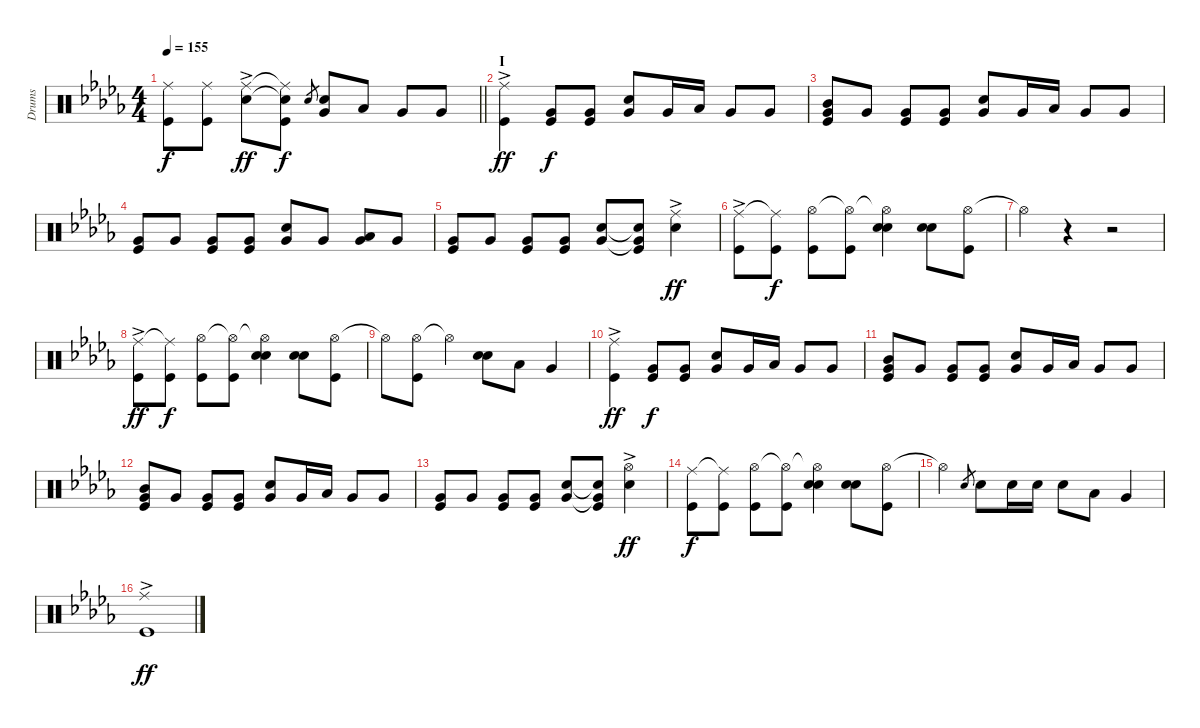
\track ("Drums" "Drums") {instrument percussion}
\staff {score}
\articulation defaults
\ts (4 4)
\tempo 155
\clef neutral
\barLineRight lightlight
\ks db
("Ride (middle)" "Kick (hit)").8{dy f} ("Ride (middle)" "Kick (hit)").8 ("Ride (middle)"{ac} "Snare (hit) 2"{ac}).8{dy ff} ("Ride (middle)"{t} "Snare (hit) 2"{t} "Kick (hit)").8{dy f} "Snare (hit) 2".8{gr} ("Snare (hit) 2" "Very Low Tom (hit)").8 "Low Tom (hit)".8 "Very Low Tom (hit)".8 "Very Low Tom (hit)".8 |
\section ("" "I")
("Ride (middle)"{ac} "Kick (hit)"{ac}).4{dy ff} ("Very Low Tom (hit)" "Kick (hit)").8{dy f} ("Very Low Tom (hit)" "Kick (hit)").8 ("Snare (hit) 2" "Very Low Tom (hit)").8 "Very Low Tom (hit)".16 "Low Tom (hit)".16 "Very Low Tom (hit)".8 "Very Low Tom (hit)".8 |
("Mid Tom (hit)" "Very Low Tom (hit)" "Kick (hit)").8 "Very Low Tom (hit)".8 ("Very Low Tom (hit)" "Kick (hit)").8 ("Very Low Tom (hit)" "Kick (hit)").8 ("Snare (hit) 2" "Very Low Tom (hit)").8 "Very Low Tom (hit)".16 "Low Tom (hit)".16 "Very Low Tom (hit)".8 "Very Low Tom (hit)".8 |
("Very Low Tom (hit)" "Kick (hit)").8 "Very Low Tom (hit)".8 ("Very Low Tom (hit)" "Kick (hit)").8 ("Very Low Tom (hit)" "Kick (hit)").8 ("Snare (hit) 2" "Very Low Tom (hit)").8 "Very Low Tom (hit)".8 ("Low Tom (hit)" "Very Low Tom (hit)").8 "Very Low Tom (hit)".8 |
("Very Low Tom (hit)" "Kick (hit)").8 "Very Low Tom (hit)".8 ("Very Low Tom (hit)" "Kick (hit)").8 ("Very Low Tom (hit)" "Kick (hit)").8 ("Snare (hit) 2" "Very Low Tom (hit)").8 ("Snare (hit) 2"{t} "Very Low Tom (hit)"{t} "Kick (hit)").8 ("Ride (middle)"{ac} "Snare (hit) 2"{ac}).4{dy ff} |
("Ride (middle)"{ac} "Kick (hit)"{ac}).8 ("Ride (middle)"{t} "Kick (hit)").8{dy f} ("Hi-Hat (open)" "Kick (hit)").8 ("Hi-Hat (open)"{t} "Kick (hit)").8 ("Hi-Hat (open)"{t} "Snare (hit) 2" "Snare (hit) 2").4 ("Snare (hit) 2" "Snare (hit) 2").8 ("Hi-Hat (open)" "Kick (hit)").8 |
"Hi-Hat (open)"{t}.4 r.4 r.2 |
("Ride (middle)"{ac} "Kick (hit)"{ac}).8{dy ff} ("Ride (middle)"{t} "Kick (hit)").8{dy f} ("Hi-Hat (open)" "Kick (hit)").8 ("Hi-Hat (open)"{t} "Kick (hit)").8 ("Hi-Hat (open)"{t} "Snare (hit) 2" "Snare (hit) 2").4 ("Snare (hit) 2" "Snare (hit) 2").8 ("Hi-Hat (open)" "Kick (hit)").8 |
"Hi-Hat (open)"{t}.8 ("Hi-Hat (open)" "Kick (hit)").8 "Hi-Hat (open)"{t}.4 ("Snare (hit) 2" "Snare (hit) 2").8 "Low Tom (hit)".8 "Very Low Tom (hit)".4 |
("Ride (middle)"{ac} "Kick (hit)"{ac}).4{dy ff} ("Very Low Tom (hit)" "Kick (hit)").8{dy f} ("Very Low Tom (hit)" "Kick (hit)").8 ("Snare (hit) 2" "Very Low Tom (hit)").8 "Very Low Tom (hit)".16 "Low Tom (hit)".16 "Very Low Tom (hit)".8 "Very Low Tom (hit)".8 |
("Mid Tom (hit)" "Very Low Tom (hit)" "Kick (hit)").8 "Very Low Tom (hit)".8 ("Very Low Tom (hit)" "Kick (hit)").8 ("Very Low Tom (hit)" "Kick (hit)").8 ("Snare (hit) 2" "Very Low Tom (hit)").8 "Very Low Tom (hit)".16 "Low Tom (hit)".16 "Very Low Tom (hit)".8 "Very Low Tom (hit)".8 |
("Mid Tom (hit)" "Very Low Tom (hit)" "Kick (hit)").8 "Very Low Tom (hit)".8 ("Very Low Tom (hit)" "Kick (hit)").8 ("Very Low Tom (hit)" "Kick (hit)").8 ("Snare (hit) 2" "Very Low Tom (hit)").8 "Very Low Tom (hit)".16 "Low Tom (hit)".16 "Very Low Tom (hit)".8 "Very Low Tom (hit)".8 |
("Very Low Tom (hit)" "Kick (hit)").8 "Very Low Tom (hit)".8 ("Very Low Tom (hit)" "Kick (hit)").8 ("Very Low Tom (hit)" "Kick (hit)").8 ("Snare (hit) 2" "Very Low Tom (hit)").8 ("Snare (hit) 2"{t} "Very Low Tom (hit)"{t} "Kick (hit)").8 ("Hi-Hat (open)"{ac} "Snare (hit) 2"{ac}).4{dy ff} |
("Ride (middle)" "Kick (hit)").8{dy f} ("Ride (middle)"{t} "Kick (hit)").8 ("Hi-Hat (open)" "Kick (hit)").8 ("Hi-Hat (open)"{t} "Kick (hit)").8 ("Hi-Hat (open)"{t} "Snare (hit) 2" "Snare (hit) 2").4 ("Snare (hit) 2" "Snare (hit) 2").8 ("Hi-Hat (open)" "Kick (hit)").8 |
"Hi-Hat (open)"{t}.4 "Snare (hit) 2".8{gr} "Snare (hit) 2".8 "Snare (hit) 2".16 "Snare (hit) 2".16 "Snare (hit) 2".8 "Low Tom (hit)".8 "Very Low Tom (hit)".4 |
("Ride (middle)"{ac} "Kick (hit)"{ac}).1{dy ff}
